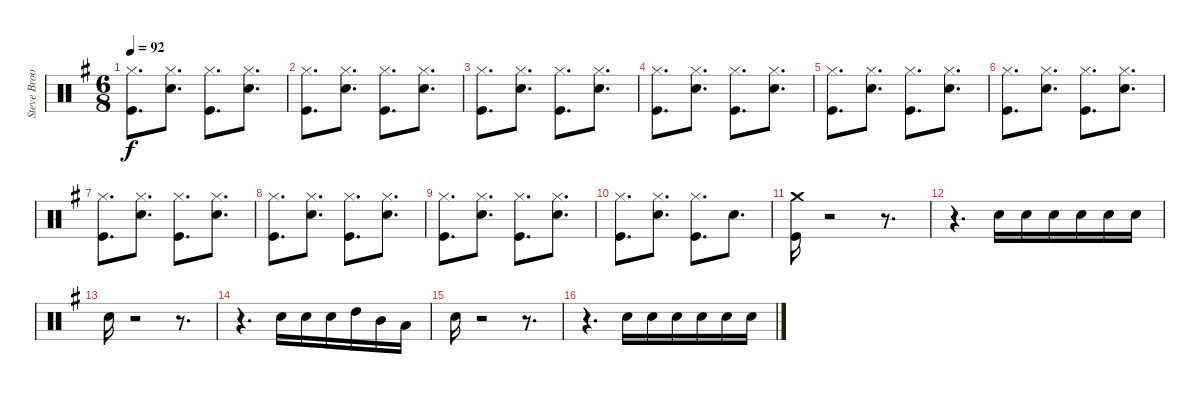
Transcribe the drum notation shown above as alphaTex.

\track ("Steve Brookins Drums" "Steve Broo") {instrument percussion}
\staff {score}
\articulation defaults
\ts (6 8)
\tempo 92
\clef neutral
\ks g
("Hi-Hat (closed)" "Kick (hit)").8{d dy f} ("Hi-Hat (closed)" "Snare (hit) 2").8{d} ("Hi-Hat (closed)" "Kick (hit)").8{d} ("Hi-Hat (closed)" "Snare (hit) 2").8{d} |
("Hi-Hat (closed)" "Kick (hit)").8{d} ("Hi-Hat (closed)" "Snare (hit) 2").8{d} ("Hi-Hat (closed)" "Kick (hit)").8{d} ("Hi-Hat (closed)" "Snare (hit) 2").8{d} |
("Hi-Hat (closed)" "Kick (hit)").8{d} ("Hi-Hat (closed)" "Snare (hit) 2").8{d} ("Hi-Hat (closed)" "Kick (hit)").8{d} ("Hi-Hat (closed)" "Snare (hit) 2").8{d} |
("Hi-Hat (closed)" "Kick (hit)").8{d} ("Hi-Hat (closed)" "Snare (hit) 2").8{d} ("Hi-Hat (closed)" "Kick (hit)").8{d} ("Hi-Hat (closed)" "Snare (hit) 2").8{d} |
("Hi-Hat (closed)" "Kick (hit)").8{d} ("Hi-Hat (closed)" "Snare (hit) 2").8{d} ("Hi-Hat (closed)" "Kick (hit)").8{d} ("Hi-Hat (closed)" "Snare (hit) 2").8{d} |
("Hi-Hat (closed)" "Kick (hit)").8{d} ("Hi-Hat (closed)" "Snare (hit) 2").8{d} ("Hi-Hat (closed)" "Kick (hit)").8{d} ("Hi-Hat (closed)" "Snare (hit) 2").8{d} |
("Hi-Hat (closed)" "Kick (hit)").8{d} ("Hi-Hat (closed)" "Snare (hit) 2").8{d} ("Hi-Hat (closed)" "Kick (hit)").8{d} ("Hi-Hat (closed)" "Snare (hit) 2").8{d} |
("Hi-Hat (closed)" "Kick (hit)").8{d} ("Hi-Hat (closed)" "Snare (hit) 2").8{d} ("Hi-Hat (closed)" "Kick (hit)").8{d} ("Hi-Hat (closed)" "Snare (hit) 2").8{d} |
("Hi-Hat (closed)" "Kick (hit)").8{d} ("Hi-Hat (closed)" "Snare (hit) 2").8{d} ("Hi-Hat (closed)" "Kick (hit)").8{d} ("Hi-Hat (closed)" "Snare (hit) 2").8{d} |
("Hi-Hat (closed)" "Kick (hit)").8{d} ("Hi-Hat (closed)" "Snare (hit) 2").8{d} ("Hi-Hat (closed)" "Kick (hit)").8{d} "Snare (hit) 2".8{d} |
("Crash medium (hit)" "Kick (hit)").16 r.2 r.8{d} |
r.4{d} "Snare (hit) 2".16 "Snare (hit) 2".16 "Snare (hit) 2".16 "Snare (hit) 2".16 "Snare (hit) 2".16 "Snare (hit) 2".16 |
"Snare (hit) 2".16 r.2 r.8{d} |
r.4{d} "Snare (hit) 2".16 "Snare (hit) 2".16 "Snare (hit) 2".16 "High Tom (hit)".16 "Mid Tom (hit)".16 "Low Tom (hit)".16 |
"Snare (hit) 2".16 r.2 r.8{d} |
r.4{d} "Snare (hit) 2".16 "Snare (hit) 2".16 "Snare (hit) 2".16 "Snare (hit) 2".16 "Snare (hit) 2".16 "Snare (hit) 2".16
